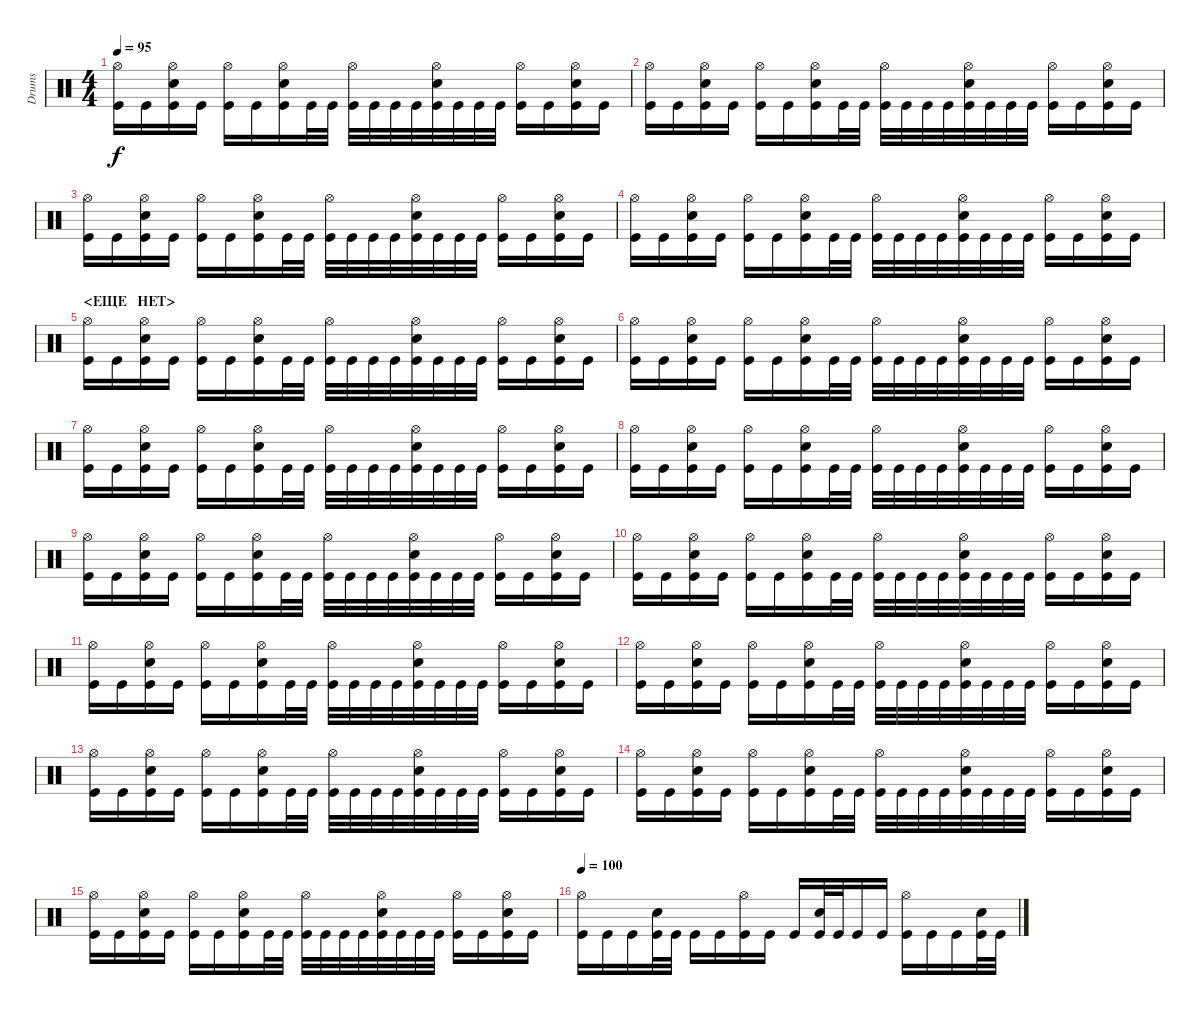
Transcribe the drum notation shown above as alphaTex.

\track ("Drums" "Drums") {instrument percussion}
\staff {score}
\articulation defaults
\ts (4 4)
\tempo 95
\clef neutral
\ks c
("Hi-Hat (open)" "Kick (hit)").16{dy f} "Kick (hit)".16 ("Hi-Hat (open)" "Electric Snare (hit)" "Kick (hit)").16 "Kick (hit)".16 ("Hi-Hat (open)" "Kick (hit)").16 "Kick (hit)".16 ("Hi-Hat (open)" "Electric Snare (hit)" "Kick (hit)").16 "Kick (hit)".32 "Kick (hit)".32 ("Hi-Hat (open)" "Kick (hit)").32 "Kick (hit)".32 "Kick (hit)".32 "Kick (hit)".32 ("Hi-Hat (open)" "Electric Snare (hit)" "Kick (hit)").32 "Kick (hit)".32 "Kick (hit)".32 "Kick (hit)".32 ("Hi-Hat (open)" "Kick (hit)").16 "Kick (hit)".16 ("Hi-Hat (open)" "Electric Snare (hit)" "Kick (hit)").16 "Kick (hit)".16 |
("Hi-Hat (open)" "Kick (hit)").16 "Kick (hit)".16 ("Hi-Hat (open)" "Electric Snare (hit)" "Kick (hit)").16 "Kick (hit)".16 ("Hi-Hat (open)" "Kick (hit)").16 "Kick (hit)".16 ("Hi-Hat (open)" "Electric Snare (hit)" "Kick (hit)").16 "Kick (hit)".32 "Kick (hit)".32 ("Hi-Hat (open)" "Kick (hit)").32 "Kick (hit)".32 "Kick (hit)".32 "Kick (hit)".32 ("Hi-Hat (open)" "Electric Snare (hit)" "Kick (hit)").32 "Kick (hit)".32 "Kick (hit)".32 "Kick (hit)".32 ("Hi-Hat (open)" "Kick (hit)").16 "Kick (hit)".16 ("Hi-Hat (open)" "Electric Snare (hit)" "Kick (hit)").16 "Kick (hit)".16 |
("Hi-Hat (open)" "Kick (hit)").16 "Kick (hit)".16 ("Hi-Hat (open)" "Electric Snare (hit)" "Kick (hit)").16 "Kick (hit)".16 ("Hi-Hat (open)" "Kick (hit)").16 "Kick (hit)".16 ("Hi-Hat (open)" "Electric Snare (hit)" "Kick (hit)").16 "Kick (hit)".32 "Kick (hit)".32 ("Hi-Hat (open)" "Kick (hit)").32 "Kick (hit)".32 "Kick (hit)".32 "Kick (hit)".32 ("Hi-Hat (open)" "Electric Snare (hit)" "Kick (hit)").32 "Kick (hit)".32 "Kick (hit)".32 "Kick (hit)".32 ("Hi-Hat (open)" "Kick (hit)").16 "Kick (hit)".16 ("Hi-Hat (open)" "Electric Snare (hit)" "Kick (hit)").16 "Kick (hit)".16 |
("Hi-Hat (open)" "Kick (hit)").16 "Kick (hit)".16 ("Hi-Hat (open)" "Electric Snare (hit)" "Kick (hit)").16 "Kick (hit)".16 ("Hi-Hat (open)" "Kick (hit)").16 "Kick (hit)".16 ("Hi-Hat (open)" "Electric Snare (hit)" "Kick (hit)").16 "Kick (hit)".32 "Kick (hit)".32 ("Hi-Hat (open)" "Kick (hit)").32 "Kick (hit)".32 "Kick (hit)".32 "Kick (hit)".32 ("Hi-Hat (open)" "Electric Snare (hit)" "Kick (hit)").32 "Kick (hit)".32 "Kick (hit)".32 "Kick (hit)".32 ("Hi-Hat (open)" "Kick (hit)").16 "Kick (hit)".16 ("Hi-Hat (open)" "Electric Snare (hit)" "Kick (hit)").16 "Kick (hit)".16 |
\section ("" "<ЕЩЕ   НЕТ>")
("Hi-Hat (open)" "Kick (hit)").16 "Kick (hit)".16 ("Hi-Hat (open)" "Electric Snare (hit)" "Kick (hit)").16 "Kick (hit)".16 ("Hi-Hat (open)" "Kick (hit)").16 "Kick (hit)".16 ("Hi-Hat (open)" "Electric Snare (hit)" "Kick (hit)").16 "Kick (hit)".32 "Kick (hit)".32 ("Hi-Hat (open)" "Kick (hit)").32 "Kick (hit)".32 "Kick (hit)".32 "Kick (hit)".32 ("Hi-Hat (open)" "Electric Snare (hit)" "Kick (hit)").32 "Kick (hit)".32 "Kick (hit)".32 "Kick (hit)".32 ("Hi-Hat (open)" "Kick (hit)").16 "Kick (hit)".16 ("Hi-Hat (open)" "Electric Snare (hit)" "Kick (hit)").16 "Kick (hit)".16 |
("Hi-Hat (open)" "Kick (hit)").16 "Kick (hit)".16 ("Hi-Hat (open)" "Electric Snare (hit)" "Kick (hit)").16 "Kick (hit)".16 ("Hi-Hat (open)" "Kick (hit)").16 "Kick (hit)".16 ("Hi-Hat (open)" "Electric Snare (hit)" "Kick (hit)").16 "Kick (hit)".32 "Kick (hit)".32 ("Hi-Hat (open)" "Kick (hit)").32 "Kick (hit)".32 "Kick (hit)".32 "Kick (hit)".32 ("Hi-Hat (open)" "Electric Snare (hit)" "Kick (hit)").32 "Kick (hit)".32 "Kick (hit)".32 "Kick (hit)".32 ("Hi-Hat (open)" "Kick (hit)").16 "Kick (hit)".16 ("Hi-Hat (open)" "Electric Snare (hit)" "Kick (hit)").16 "Kick (hit)".16 |
("Hi-Hat (open)" "Kick (hit)").16 "Kick (hit)".16 ("Hi-Hat (open)" "Electric Snare (hit)" "Kick (hit)").16 "Kick (hit)".16 ("Hi-Hat (open)" "Kick (hit)").16 "Kick (hit)".16 ("Hi-Hat (open)" "Electric Snare (hit)" "Kick (hit)").16 "Kick (hit)".32 "Kick (hit)".32 ("Hi-Hat (open)" "Kick (hit)").32 "Kick (hit)".32 "Kick (hit)".32 "Kick (hit)".32 ("Hi-Hat (open)" "Electric Snare (hit)" "Kick (hit)").32 "Kick (hit)".32 "Kick (hit)".32 "Kick (hit)".32 ("Hi-Hat (open)" "Kick (hit)").16 "Kick (hit)".16 ("Hi-Hat (open)" "Electric Snare (hit)" "Kick (hit)").16 "Kick (hit)".16 |
("Hi-Hat (open)" "Kick (hit)").16 "Kick (hit)".16 ("Hi-Hat (open)" "Electric Snare (hit)" "Kick (hit)").16 "Kick (hit)".16 ("Hi-Hat (open)" "Kick (hit)").16 "Kick (hit)".16 ("Hi-Hat (open)" "Electric Snare (hit)" "Kick (hit)").16 "Kick (hit)".32 "Kick (hit)".32 ("Hi-Hat (open)" "Kick (hit)").32 "Kick (hit)".32 "Kick (hit)".32 "Kick (hit)".32 ("Hi-Hat (open)" "Electric Snare (hit)" "Kick (hit)").32 "Kick (hit)".32 "Kick (hit)".32 "Kick (hit)".32 ("Hi-Hat (open)" "Kick (hit)").16 "Kick (hit)".16 ("Hi-Hat (open)" "Electric Snare (hit)" "Kick (hit)").16 "Kick (hit)".16 |
("Hi-Hat (open)" "Kick (hit)").16 "Kick (hit)".16 ("Hi-Hat (open)" "Electric Snare (hit)" "Kick (hit)").16 "Kick (hit)".16 ("Hi-Hat (open)" "Kick (hit)").16 "Kick (hit)".16 ("Hi-Hat (open)" "Electric Snare (hit)" "Kick (hit)").16 "Kick (hit)".32 "Kick (hit)".32 ("Hi-Hat (open)" "Kick (hit)").32 "Kick (hit)".32 "Kick (hit)".32 "Kick (hit)".32 ("Hi-Hat (open)" "Electric Snare (hit)" "Kick (hit)").32 "Kick (hit)".32 "Kick (hit)".32 "Kick (hit)".32 ("Hi-Hat (open)" "Kick (hit)").16 "Kick (hit)".16 ("Hi-Hat (open)" "Electric Snare (hit)" "Kick (hit)").16 "Kick (hit)".16 |
("Hi-Hat (open)" "Kick (hit)").16 "Kick (hit)".16 ("Hi-Hat (open)" "Electric Snare (hit)" "Kick (hit)").16 "Kick (hit)".16 ("Hi-Hat (open)" "Kick (hit)").16 "Kick (hit)".16 ("Hi-Hat (open)" "Electric Snare (hit)" "Kick (hit)").16 "Kick (hit)".32 "Kick (hit)".32 ("Hi-Hat (open)" "Kick (hit)").32 "Kick (hit)".32 "Kick (hit)".32 "Kick (hit)".32 ("Hi-Hat (open)" "Electric Snare (hit)" "Kick (hit)").32 "Kick (hit)".32 "Kick (hit)".32 "Kick (hit)".32 ("Hi-Hat (open)" "Kick (hit)").16 "Kick (hit)".16 ("Hi-Hat (open)" "Electric Snare (hit)" "Kick (hit)").16 "Kick (hit)".16 |
("Hi-Hat (open)" "Kick (hit)").16 "Kick (hit)".16 ("Hi-Hat (open)" "Electric Snare (hit)" "Kick (hit)").16 "Kick (hit)".16 ("Hi-Hat (open)" "Kick (hit)").16 "Kick (hit)".16 ("Hi-Hat (open)" "Electric Snare (hit)" "Kick (hit)").16 "Kick (hit)".32 "Kick (hit)".32 ("Hi-Hat (open)" "Kick (hit)").32 "Kick (hit)".32 "Kick (hit)".32 "Kick (hit)".32 ("Hi-Hat (open)" "Electric Snare (hit)" "Kick (hit)").32 "Kick (hit)".32 "Kick (hit)".32 "Kick (hit)".32 ("Hi-Hat (open)" "Kick (hit)").16 "Kick (hit)".16 ("Hi-Hat (open)" "Electric Snare (hit)" "Kick (hit)").16 "Kick (hit)".16 |
("Hi-Hat (open)" "Kick (hit)").16 "Kick (hit)".16 ("Hi-Hat (open)" "Electric Snare (hit)" "Kick (hit)").16 "Kick (hit)".16 ("Hi-Hat (open)" "Kick (hit)").16 "Kick (hit)".16 ("Hi-Hat (open)" "Electric Snare (hit)" "Kick (hit)").16 "Kick (hit)".32 "Kick (hit)".32 ("Hi-Hat (open)" "Kick (hit)").32 "Kick (hit)".32 "Kick (hit)".32 "Kick (hit)".32 ("Hi-Hat (open)" "Electric Snare (hit)" "Kick (hit)").32 "Kick (hit)".32 "Kick (hit)".32 "Kick (hit)".32 ("Hi-Hat (open)" "Kick (hit)").16 "Kick (hit)".16 ("Hi-Hat (open)" "Electric Snare (hit)" "Kick (hit)").16 "Kick (hit)".16 |
("Hi-Hat (open)" "Kick (hit)").16 "Kick (hit)".16 ("Hi-Hat (open)" "Electric Snare (hit)" "Kick (hit)").16 "Kick (hit)".16 ("Hi-Hat (open)" "Kick (hit)").16 "Kick (hit)".16 ("Hi-Hat (open)" "Electric Snare (hit)" "Kick (hit)").16 "Kick (hit)".32 "Kick (hit)".32 ("Hi-Hat (open)" "Kick (hit)").32 "Kick (hit)".32 "Kick (hit)".32 "Kick (hit)".32 ("Hi-Hat (open)" "Electric Snare (hit)" "Kick (hit)").32 "Kick (hit)".32 "Kick (hit)".32 "Kick (hit)".32 ("Hi-Hat (open)" "Kick (hit)").16 "Kick (hit)".16 ("Hi-Hat (open)" "Electric Snare (hit)" "Kick (hit)").16 "Kick (hit)".16 |
("Hi-Hat (open)" "Kick (hit)").16 "Kick (hit)".16 ("Hi-Hat (open)" "Electric Snare (hit)" "Kick (hit)").16 "Kick (hit)".16 ("Hi-Hat (open)" "Kick (hit)").16 "Kick (hit)".16 ("Hi-Hat (open)" "Electric Snare (hit)" "Kick (hit)").16 "Kick (hit)".32 "Kick (hit)".32 ("Hi-Hat (open)" "Kick (hit)").32 "Kick (hit)".32 "Kick (hit)".32 "Kick (hit)".32 ("Hi-Hat (open)" "Electric Snare (hit)" "Kick (hit)").32 "Kick (hit)".32 "Kick (hit)".32 "Kick (hit)".32 ("Hi-Hat (open)" "Kick (hit)").16 "Kick (hit)".16 ("Hi-Hat (open)" "Electric Snare (hit)" "Kick (hit)").16 "Kick (hit)".16 |
("Hi-Hat (open)" "Kick (hit)").16 "Kick (hit)".16 ("Hi-Hat (open)" "Electric Snare (hit)" "Kick (hit)").16 "Kick (hit)".16 ("Hi-Hat (open)" "Kick (hit)").16 "Kick (hit)".16 ("Hi-Hat (open)" "Electric Snare (hit)" "Kick (hit)").16 "Kick (hit)".32 "Kick (hit)".32 ("Hi-Hat (open)" "Kick (hit)").32 "Kick (hit)".32 "Kick (hit)".32 "Kick (hit)".32 ("Hi-Hat (open)" "Electric Snare (hit)" "Kick (hit)").32 "Kick (hit)".32 "Kick (hit)".32 "Kick (hit)".32 ("Hi-Hat (open)" "Kick (hit)").16 "Kick (hit)".16 ("Hi-Hat (open)" "Electric Snare (hit)" "Kick (hit)").16 "Kick (hit)".16 |
\section ("" "")
\tempo 100
("Hi-Hat (open)" "Kick (hit)").16 "Kick (hit)".16 "Kick (hit)".16 ("Electric Snare (hit)" "Kick (hit)").32 "Kick (hit)".32 "Kick (hit)".16 "Kick (hit)".16 ("Hi-Hat (open)" "Kick (hit)").16 "Kick (hit)".16 "Kick (hit)".16 ("Electric Snare (hit)" "Kick (hit)").32 "Kick (hit)".32 "Kick (hit)".16 "Kick (hit)".16 ("Hi-Hat (open)" "Kick (hit)").16 "Kick (hit)".16 "Kick (hit)".16 ("Electric Snare (hit)" "Kick (hit)").32 "Kick (hit)".32
